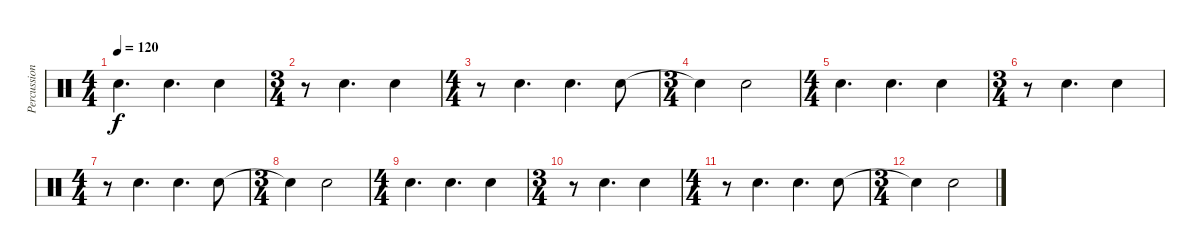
\track ("Percussion" "Percussion") {instrument percussion}
\staff {score}
\articulation defaults
\ts (4 4)
\tempo 120
\clef neutral
\ks c "Electric Snare (hit)".4{d dy f} "Electric Snare (hit)".4{d} "Electric Snare (hit)".4
|
\ts (3 4)
r.8 "Electric Snare (hit)".4{d} "Electric Snare (hit)".4 |
\ts (4 4)
r.8 "Electric Snare (hit)".4{d} "Electric Snare (hit)".4{d} "Electric Snare (hit)".8 |
\ts (3 4)
"Snare (hit)"{t}.4 "Electric Snare (hit)".2 |
\ts (4 4)
"Electric Snare (hit)".4{d} "Electric Snare (hit)".4{d} "Electric Snare (hit)".4 |
\ts (3 4)
r.8 "Electric Snare (hit)".4{d} "Electric Snare (hit)".4 |
\ts (4 4)
r.8 "Electric Snare (hit)".4{d} "Electric Snare (hit)".4{d} "Electric Snare (hit)".8 |
\ts (3 4)
"Snare (hit)"{t}.4 "Electric Snare (hit)".2 |
\ts (4 4)
"Electric Snare (hit)".4{d} "Electric Snare (hit)".4{d} "Electric Snare (hit)".4 |
\ts (3 4)
r.8 "Electric Snare (hit)".4{d} "Electric Snare (hit)".4 |
\ts (4 4)
r.8 "Electric Snare (hit)".4{d} "Electric Snare (hit)".4{d} "Electric Snare (hit)".8 |
\ts (3 4)
"Snare (hit)"{t}.4 "Electric Snare (hit)".2
